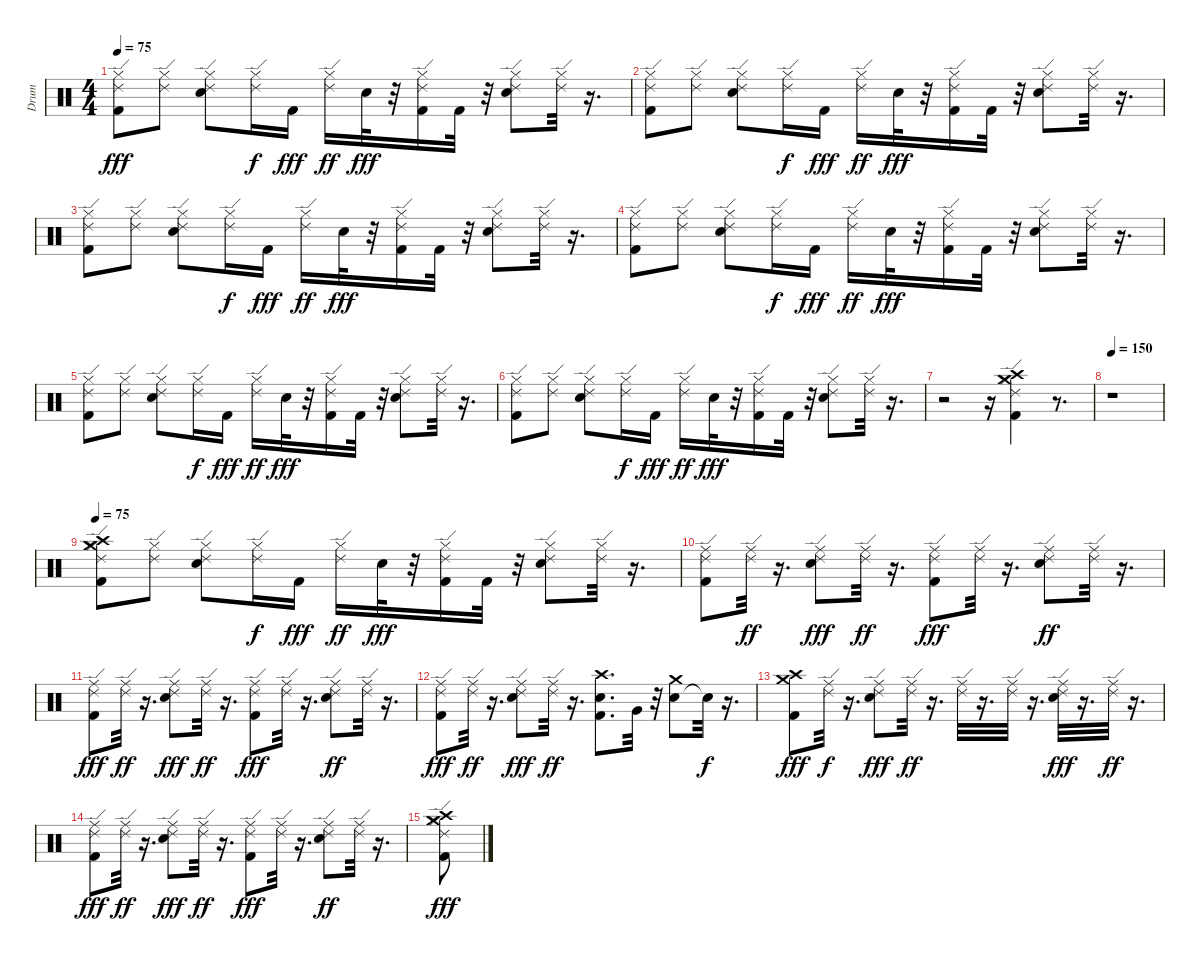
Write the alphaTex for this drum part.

\track ("Drum" "Drum") {instrument percussion}
\staff {score}
\articulation defaults
\ts (4 4)
\tempo 75
\clef neutral
\ks c
("Kick (hit) 2" "Hi-Hat (closed)" "Ride (edge) 2").8{dy fff} ("Hi-Hat (closed)" "Ride (edge) 2").8 ("Snare (hit) 2" "Hi-Hat (closed)" "Ride (edge) 2").8 ("Hi-Hat (closed)" "Ride (edge) 2").16{dy f} "Kick (hit) 2".16{dy fff} ("Hi-Hat (closed)" "Ride (edge) 2").16{dy ff} "Snare (hit) 2".32{dy fff} r.32 ("Kick (hit) 2" "Hi-Hat (closed)" "Ride (edge) 2").16 "Kick (hit) 2".32 r.32 ("Snare (hit) 2" "Hi-Hat (closed)" "Ride (edge) 2").8 ("Hi-Hat (closed)" "Ride (edge) 2").32 r.16{d} |
("Kick (hit) 2" "Hi-Hat (closed)" "Ride (edge) 2").8 ("Hi-Hat (closed)" "Ride (edge) 2").8 ("Snare (hit) 2" "Hi-Hat (closed)" "Ride (edge) 2").8 ("Hi-Hat (closed)" "Ride (edge) 2").16{dy f} "Kick (hit) 2".16{dy fff} ("Hi-Hat (closed)" "Ride (edge) 2").16{dy ff} "Snare (hit) 2".32{dy fff} r.32 ("Kick (hit) 2" "Hi-Hat (closed)" "Ride (edge) 2").16 "Kick (hit) 2".32 r.32 ("Snare (hit) 2" "Hi-Hat (closed)" "Ride (edge) 2").8 ("Hi-Hat (closed)" "Ride (edge) 2").32 r.16{d} |
("Kick (hit) 2" "Hi-Hat (closed)" "Ride (edge) 2").8 ("Hi-Hat (closed)" "Ride (edge) 2").8 ("Snare (hit) 2" "Hi-Hat (closed)" "Ride (edge) 2").8 ("Hi-Hat (closed)" "Ride (edge) 2").16{dy f} "Kick (hit) 2".16{dy fff} ("Hi-Hat (closed)" "Ride (edge) 2").16{dy ff} "Snare (hit) 2".32{dy fff} r.32 ("Kick (hit) 2" "Hi-Hat (closed)" "Ride (edge) 2").16 "Kick (hit) 2".32 r.32 ("Snare (hit) 2" "Hi-Hat (closed)" "Ride (edge) 2").8 ("Hi-Hat (closed)" "Ride (edge) 2").32 r.16{d} |
("Kick (hit) 2" "Hi-Hat (closed)" "Ride (edge) 2").8 ("Hi-Hat (closed)" "Ride (edge) 2").8 ("Snare (hit) 2" "Hi-Hat (closed)" "Ride (edge) 2").8 ("Hi-Hat (closed)" "Ride (edge) 2").16{dy f} "Kick (hit) 2".16{dy fff} ("Hi-Hat (closed)" "Ride (edge) 2").16{dy ff} "Snare (hit) 2".32{dy fff} r.32 ("Kick (hit) 2" "Hi-Hat (closed)" "Ride (edge) 2").16 "Kick (hit) 2".32 r.32 ("Snare (hit) 2" "Hi-Hat (closed)" "Ride (edge) 2").8 ("Hi-Hat (closed)" "Ride (edge) 2").32 r.16{d} |
("Kick (hit) 2" "Hi-Hat (closed)" "Ride (edge) 2").8 ("Hi-Hat (closed)" "Ride (edge) 2").8 ("Snare (hit) 2" "Hi-Hat (closed)" "Ride (edge) 2").8 ("Hi-Hat (closed)" "Ride (edge) 2").16{dy f} "Kick (hit) 2".16{dy fff} ("Hi-Hat (closed)" "Ride (edge) 2").16{dy ff} "Snare (hit) 2".32{dy fff} r.32 ("Kick (hit) 2" "Hi-Hat (closed)" "Ride (edge) 2").16 "Kick (hit) 2".32 r.32 ("Snare (hit) 2" "Hi-Hat (closed)" "Ride (edge) 2").8 ("Hi-Hat (closed)" "Ride (edge) 2").32 r.16{d} |
("Kick (hit) 2" "Hi-Hat (closed)" "Ride (edge) 2").8 ("Hi-Hat (closed)" "Ride (edge) 2").8 ("Snare (hit) 2" "Hi-Hat (closed)" "Ride (edge) 2").8 ("Hi-Hat (closed)" "Ride (edge) 2").16{dy f} "Kick (hit) 2".16{dy fff} ("Hi-Hat (closed)" "Ride (edge) 2").16{dy ff} "Snare (hit) 2".32{dy fff} r.32 ("Kick (hit) 2" "Hi-Hat (closed)" "Ride (edge) 2").16 "Kick (hit) 2".32 r.32 ("Snare (hit) 2" "Hi-Hat (closed)" "Ride (edge) 2").8 ("Hi-Hat (closed)" "Ride (edge) 2").32 r.16{d} |
r.2 r.16 ("Crash medium (hit)" "Crash high (hit)" "Kick (hit) 2" "Hi-Hat (closed)" "Ride (edge) 2").4 r.8{d} |
\tempo 150
r.1 |
\tempo 75
("Crash medium (hit)" "Crash high (hit)" "Kick (hit) 2" "Hi-Hat (closed)" "Ride (edge) 2").8 ("Hi-Hat (closed)" "Ride (edge) 2").8 ("Snare (hit) 2" "Hi-Hat (closed)" "Ride (edge) 2").8 ("Hi-Hat (closed)" "Ride (edge) 2").16{dy f} "Kick (hit) 2".16{dy fff} ("Hi-Hat (closed)" "Ride (edge) 2").16{dy ff} "Snare (hit) 2".32{dy fff} r.32 ("Kick (hit) 2" "Hi-Hat (closed)" "Ride (edge) 2").16 "Kick (hit) 2".32 r.32 ("Snare (hit) 2" "Hi-Hat (closed)" "Ride (edge) 2").8 ("Hi-Hat (closed)" "Ride (edge) 2").32 r.16{d} |
("Kick (hit) 2" "Ride (edge) 2" "Ride (middle)").8 ("Ride (middle)" "Ride (edge) 2").32{dy ff} r.16{d} ("Snare (hit) 2" "Ride (edge) 2" "Ride (middle)").8{dy fff} ("Ride (middle)" "Ride (edge) 2").32{dy ff} r.16{d} ("Ride (middle)" "Ride (edge) 2" "Kick (hit) 2").8{dy fff} ("Ride (edge) 2" "Ride (middle)").32 r.16{d} ("Snare (hit) 2" "Ride (middle)" "Ride (edge) 2").8{dy ff} ("Ride (edge) 2" "Ride (middle)").32 r.16{d} |
("Kick (hit) 2" "Ride (edge) 2" "Ride (middle)").8{dy fff} ("Ride (middle)" "Ride (edge) 2").32{dy ff} r.16{d} ("Snare (hit) 2" "Ride (edge) 2" "Ride (middle)").8{dy fff} ("Ride (middle)" "Ride (edge) 2").32{dy ff} r.16{d} ("Ride (middle)" "Ride (edge) 2" "Kick (hit) 2").8{dy fff} ("Ride (edge) 2" "Ride (middle)").32 r.16{d} ("Snare (hit) 2" "Ride (middle)" "Ride (edge) 2").8{dy ff} ("Ride (edge) 2" "Ride (middle)").32 r.16{d} |
("Kick (hit) 2" "Ride (edge) 2" "Ride (middle)").8{dy fff} ("Ride (middle)" "Ride (edge) 2").32{dy ff} r.16{d} ("Snare (hit) 2" "Ride (edge) 2" "Ride (middle)").8{dy fff} ("Ride (middle)" "Ride (edge) 2").32{dy ff} r.16{d} ("Snare (hit) 2" "Crash high (hit)" "Kick (hit) 2").8{d} "Very Low Tom (hit)".32 r.32 ("Snare (hit) 2" "Crash medium (hit)").8 "Snare (hit)"{t}.32{dy f} r.16{d} |
("Kick (hit) 2" "Crash medium (hit)" "Crash high (hit)").8{dy fff} ("Ride (edge) 2" "Ride (middle)").32{dy f} r.16{d} ("Snare (hit) 2" "Ride (edge) 2" "Ride (middle)").8{dy fff} ("Ride (middle)" "Ride (edge) 2").32{dy ff} r.16{d} ("Ride (middle)" "Ride (edge) 2").32 r.16{d} ("Ride (middle)" "Ride (edge) 2").32 r.16{d} ("Snare (hit) 2" "Ride (edge) 2" "Ride (middle)").32{dy fff} r.16{d} ("Ride (middle)" "Ride (edge) 2").32{dy ff} r.16{d} |
("Kick (hit) 2" "Ride (edge) 2" "Ride (middle)").8{dy fff} ("Ride (middle)" "Ride (edge) 2").32{dy ff} r.16{d} ("Snare (hit) 2" "Ride (edge) 2" "Ride (middle)").8{dy fff} ("Ride (middle)" "Ride (edge) 2").32{dy ff} r.16{d} ("Ride (middle)" "Ride (edge) 2" "Kick (hit) 2").8{dy fff} ("Ride (edge) 2" "Ride (middle)").32 r.16{d} ("Snare (hit) 2" "Ride (middle)" "Ride (edge) 2").8{dy ff} ("Ride (edge) 2" "Ride (middle)").32 r.16{d} |
("Crash medium (hit)" "Crash high (hit)" "Kick (hit) 2" "Hi-Hat (closed)" "Ride (edge) 2").8{dy fff}
